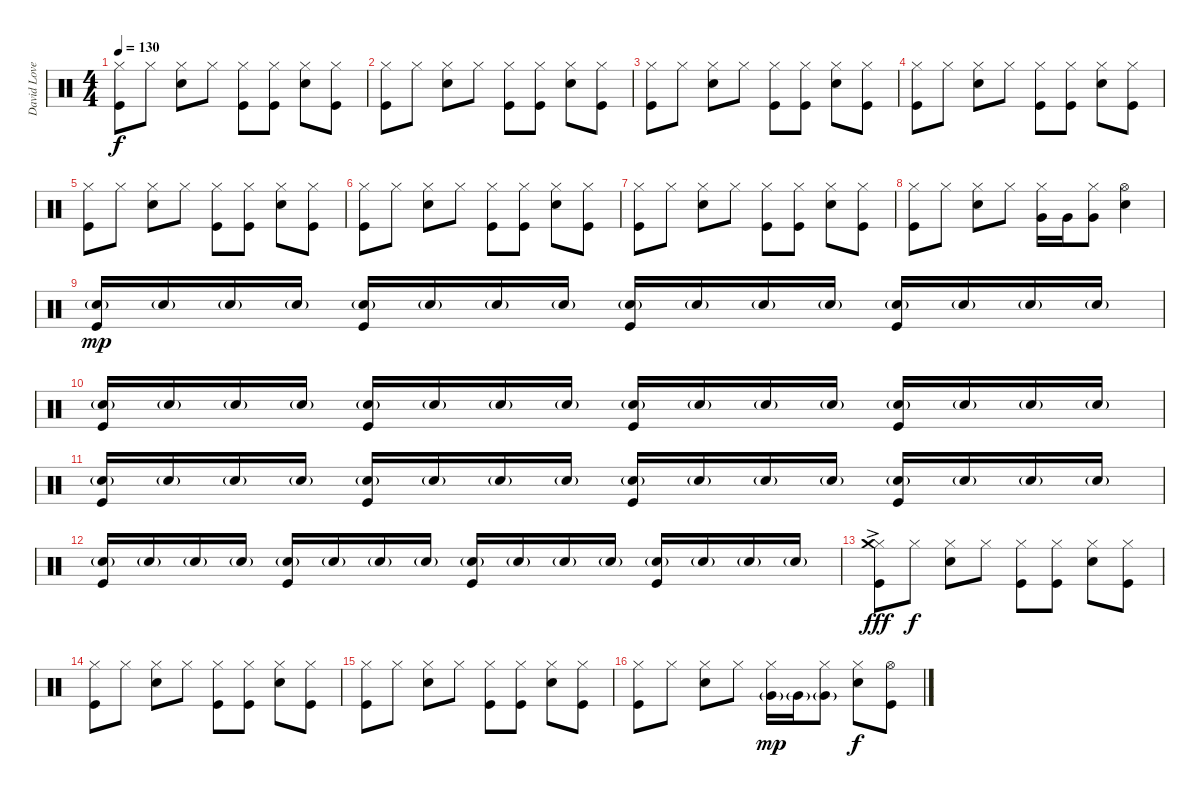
\track ("David Lovering" "David Love") {instrument percussion}
\staff {score}
\articulation defaults
\ts (4 4)
\tempo 130
\clef neutral
\ks c
("Hi-Hat (closed)" "Kick (hit)").8{dy f} "Hi-Hat (closed)".8 ("Hi-Hat (closed)" "Snare (hit) 2").8 "Hi-Hat (closed)".8 ("Hi-Hat (closed)" "Kick (hit)").8 ("Hi-Hat (closed)" "Kick (hit)").8 ("Hi-Hat (closed)" "Snare (hit) 2").8 ("Hi-Hat (closed)" "Kick (hit)").8 |
("Hi-Hat (closed)" "Kick (hit)").8 "Hi-Hat (closed)".8 ("Hi-Hat (closed)" "Snare (hit) 2").8 "Hi-Hat (closed)".8 ("Hi-Hat (closed)" "Kick (hit)").8 ("Hi-Hat (closed)" "Kick (hit)").8 ("Hi-Hat (closed)" "Snare (hit) 2").8 ("Hi-Hat (closed)" "Kick (hit)").8 |
("Hi-Hat (closed)" "Kick (hit)").8 "Hi-Hat (closed)".8 ("Hi-Hat (closed)" "Snare (hit) 2").8 "Hi-Hat (closed)".8 ("Hi-Hat (closed)" "Kick (hit)").8 ("Hi-Hat (closed)" "Kick (hit)").8 ("Hi-Hat (closed)" "Snare (hit) 2").8 ("Hi-Hat (closed)" "Kick (hit)").8 |
("Hi-Hat (closed)" "Kick (hit)").8 "Hi-Hat (closed)".8 ("Hi-Hat (closed)" "Snare (hit) 2").8 "Hi-Hat (closed)".8 ("Hi-Hat (closed)" "Kick (hit)").8 ("Hi-Hat (closed)" "Kick (hit)").8 ("Hi-Hat (closed)" "Snare (hit) 2").8 ("Hi-Hat (closed)" "Kick (hit)").8 |
("Hi-Hat (closed)" "Kick (hit)").8 "Hi-Hat (closed)".8 ("Hi-Hat (closed)" "Snare (hit) 2").8 "Hi-Hat (closed)".8 ("Hi-Hat (closed)" "Kick (hit)").8 ("Hi-Hat (closed)" "Kick (hit)").8 ("Hi-Hat (closed)" "Snare (hit) 2").8 ("Hi-Hat (closed)" "Kick (hit)").8 |
("Hi-Hat (closed)" "Kick (hit)").8 "Hi-Hat (closed)".8 ("Hi-Hat (closed)" "Snare (hit) 2").8 "Hi-Hat (closed)".8 ("Hi-Hat (closed)" "Kick (hit)").8 ("Hi-Hat (closed)" "Kick (hit)").8 ("Hi-Hat (closed)" "Snare (hit) 2").8 ("Hi-Hat (closed)" "Kick (hit)").8 |
("Hi-Hat (closed)" "Kick (hit)").8 "Hi-Hat (closed)".8 ("Hi-Hat (closed)" "Snare (hit) 2").8 "Hi-Hat (closed)".8 ("Hi-Hat (closed)" "Kick (hit)").8 ("Hi-Hat (closed)" "Kick (hit)").8 ("Hi-Hat (closed)" "Snare (hit) 2").8 ("Hi-Hat (closed)" "Kick (hit)").8 |
("Hi-Hat (closed)" "Kick (hit)").8 "Hi-Hat (closed)".8 ("Hi-Hat (closed)" "Snare (hit) 2").8 "Hi-Hat (closed)".8 ("Hi-Hat (closed)" "Very Low Tom (hit)").16 "Very Low Tom (hit)".16 ("Hi-Hat (closed)" "Very Low Tom (hit)").8 ("Hi-Hat (open)" "Snare (hit) 2").4 |
("Snare (hit) 2"{g} "Kick (hit)").16{dy mp volume 8} "Snare (hit) 2"{g}.16 "Snare (hit) 2"{g}.16 "Snare (hit) 2"{g}.16 ("Snare (hit) 2"{g} "Kick (hit)").16 "Snare (hit) 2"{g}.16 "Snare (hit) 2"{g}.16 "Snare (hit) 2"{g}.16 ("Snare (hit) 2"{g} "Kick (hit)").16 "Snare (hit) 2"{g}.16 "Snare (hit) 2"{g}.16 "Snare (hit) 2"{g}.16 ("Snare (hit) 2"{g} "Kick (hit)").16 "Snare (hit) 2"{g}.16 "Snare (hit) 2"{g}.16 "Snare (hit) 2"{g}.16 |
("Snare (hit) 2"{g} "Kick (hit)").16{volume 15} "Snare (hit) 2"{g}.16 "Snare (hit) 2"{g}.16 "Snare (hit) 2"{g}.16 ("Snare (hit) 2"{g} "Kick (hit)").16 "Snare (hit) 2"{g}.16 "Snare (hit) 2"{g}.16 "Snare (hit) 2"{g}.16 ("Snare (hit) 2"{g} "Kick (hit)").16 "Snare (hit) 2"{g}.16 "Snare (hit) 2"{g}.16 "Snare (hit) 2"{g}.16 ("Snare (hit) 2"{g} "Kick (hit)").16 "Snare (hit) 2"{g}.16 "Snare (hit) 2"{g}.16 "Snare (hit) 2"{g}.16 |
("Snare (hit) 2"{g} "Kick (hit)").16 "Snare (hit) 2"{g}.16 "Snare (hit) 2"{g}.16 "Snare (hit) 2"{g}.16 ("Snare (hit) 2"{g} "Kick (hit)").16 "Snare (hit) 2"{g}.16 "Snare (hit) 2"{g}.16 "Snare (hit) 2"{g}.16 ("Snare (hit) 2"{g} "Kick (hit)").16 "Snare (hit) 2"{g}.16 "Snare (hit) 2"{g}.16 "Snare (hit) 2"{g}.16 ("Snare (hit) 2"{g} "Kick (hit)").16 "Snare (hit) 2"{g}.16 "Snare (hit) 2"{g}.16 "Snare (hit) 2"{g}.16 |
("Snare (hit) 2"{g} "Kick (hit)").16 "Snare (hit) 2"{g}.16 "Snare (hit) 2"{g}.16 "Snare (hit) 2"{g}.16 ("Snare (hit) 2"{g} "Kick (hit)").16 "Snare (hit) 2"{g}.16 "Snare (hit) 2"{g}.16 "Snare (hit) 2"{g}.16 ("Snare (hit) 2"{g} "Kick (hit)").16 "Snare (hit) 2"{g}.16 "Snare (hit) 2"{g}.16 "Snare (hit) 2"{g}.16 ("Snare (hit) 2"{g} "Kick (hit)").16 "Snare (hit) 2"{g}.16 "Snare (hit) 2"{g}.16 "Snare (hit) 2"{g}.16 |
("Hi-Hat (closed)" "Crash medium (hit)"{ac} "Kick (hit)").8{dy fff volume 13} "Hi-Hat (closed)".8{dy f} ("Hi-Hat (closed)" "Snare (hit) 2").8 "Hi-Hat (closed)".8 ("Hi-Hat (closed)" "Kick (hit)").8 ("Hi-Hat (closed)" "Kick (hit)").8 ("Hi-Hat (closed)" "Snare (hit) 2").8 ("Hi-Hat (closed)" "Kick (hit)").8 |
("Hi-Hat (closed)" "Kick (hit)").8 "Hi-Hat (closed)".8 ("Hi-Hat (closed)" "Snare (hit) 2").8 "Hi-Hat (closed)".8 ("Hi-Hat (closed)" "Kick (hit)").8 ("Hi-Hat (closed)" "Kick (hit)").8 ("Hi-Hat (closed)" "Snare (hit) 2").8 ("Hi-Hat (closed)" "Kick (hit)").8 |
("Hi-Hat (closed)" "Kick (hit)").8 "Hi-Hat (closed)".8 ("Hi-Hat (closed)" "Snare (hit) 2").8 "Hi-Hat (closed)".8 ("Hi-Hat (closed)" "Kick (hit)").8 ("Hi-Hat (closed)" "Kick (hit)").8 ("Hi-Hat (closed)" "Snare (hit) 2").8 ("Hi-Hat (closed)" "Kick (hit)").8 |
("Hi-Hat (closed)" "Kick (hit)").8 "Hi-Hat (closed)".8 ("Hi-Hat (closed)" "Snare (hit) 2").8 "Hi-Hat (closed)".8 ("Hi-Hat (closed)" "Very Low Tom (hit)"{g}).16{dy mp} "Very Low Tom (hit)"{g}.16 ("Hi-Hat (closed)" "Very Low Tom (hit)"{g}).8 ("Hi-Hat (closed)" "Snare (hit) 2").8{dy f} ("Hi-Hat (open)" "Kick (hit)").8
